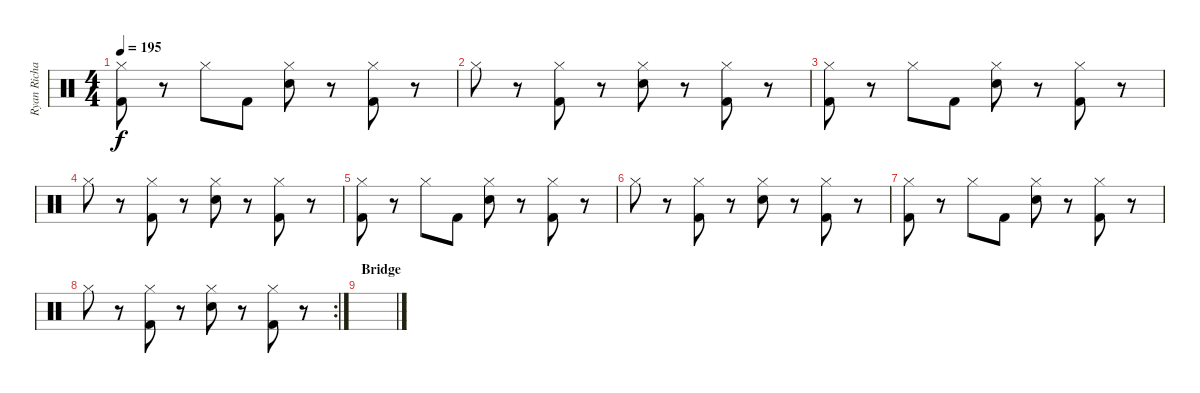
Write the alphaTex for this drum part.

\track ("Ryan Richards" "Ryan Richa") {instrument percussion}
\staff {score}
\articulation defaults
\ts (4 4)
\tempo 195
\clef neutral
\ks c
("Kick (hit) 2" "Hi-Hat (closed)").8{dy f} r.8 "Hi-Hat (closed)".8 "Kick (hit) 2".8 ("Hi-Hat (closed)" "Snare (hit) 2").8 r.8 ("Kick (hit) 2" "Hi-Hat (closed)").8 r.8 |
"Hi-Hat (closed)".8 r.8 ("Kick (hit) 2" "Hi-Hat (closed)").8 r.8 ("Hi-Hat (closed)" "Snare (hit) 2").8 r.8 ("Kick (hit) 2" "Hi-Hat (closed)").8 r.8 |
("Kick (hit) 2" "Hi-Hat (closed)").8 r.8 "Hi-Hat (closed)".8 "Kick (hit) 2".8 ("Hi-Hat (closed)" "Snare (hit) 2").8 r.8 ("Kick (hit) 2" "Hi-Hat (closed)").8 r.8 |
"Hi-Hat (closed)".8 r.8 ("Kick (hit) 2" "Hi-Hat (closed)").8 r.8 ("Hi-Hat (closed)" "Snare (hit) 2").8 r.8 ("Kick (hit) 2" "Hi-Hat (closed)").8 r.8 |
("Kick (hit) 2" "Hi-Hat (closed)").8 r.8 "Hi-Hat (closed)".8 "Kick (hit) 2".8 ("Hi-Hat (closed)" "Snare (hit) 2").8 r.8 ("Kick (hit) 2" "Hi-Hat (closed)").8 r.8 |
"Hi-Hat (closed)".8 r.8 ("Kick (hit) 2" "Hi-Hat (closed)").8 r.8 ("Hi-Hat (closed)" "Snare (hit) 2").8 r.8 ("Kick (hit) 2" "Hi-Hat (closed)").8 r.8 |
("Kick (hit) 2" "Hi-Hat (closed)").8 r.8 "Hi-Hat (closed)".8 "Kick (hit) 2".8 ("Hi-Hat (closed)" "Snare (hit) 2").8 r.8 ("Kick (hit) 2" "Hi-Hat (closed)").8 r.8 |
\rc 2 "Hi-Hat (closed)".8
r.8 ("Kick (hit) 2" "Hi-Hat (closed)").8 r.8 ("Hi-Hat (closed)" "Snare (hit) 2").8 r.8 ("Kick (hit) 2" "Hi-Hat (closed)").8 r.8 |
\section ("" "Bridge")
